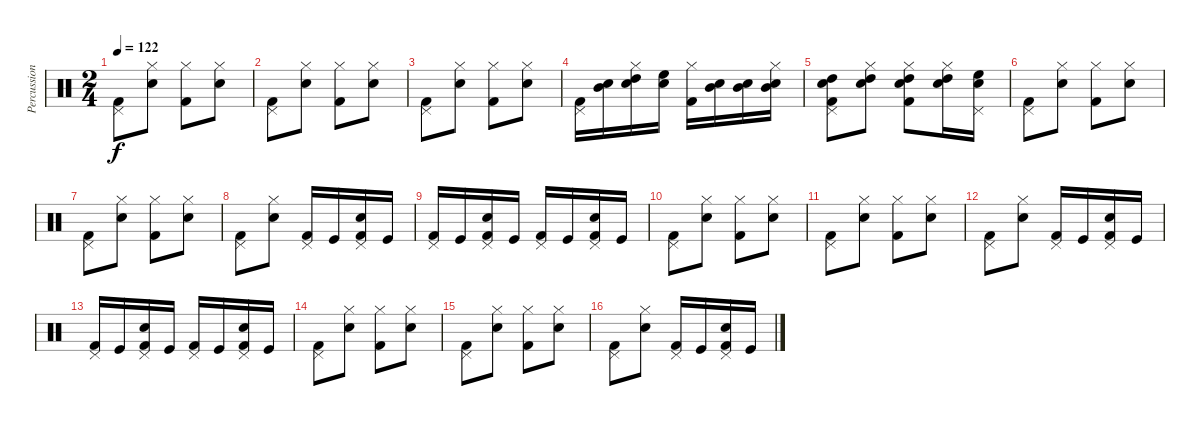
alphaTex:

\track ("Percussions" "Percussion") {instrument percussion}
\staff {score}
\articulation defaults
\ts (2 4)
\tempo 122
\clef neutral
\ks c
("Pedal Hi-Hat (hit)" "Kick (hit) 2").8{dy f} ("Hi-Hat (closed)" "Snare (hit) 2").8 ("Hi-Hat (closed)" "Kick (hit) 2").8 ("Hi-Hat (closed)" "Snare (hit) 2").8 |
("Pedal Hi-Hat (hit)" "Kick (hit) 2").8 ("Hi-Hat (closed)" "Snare (hit) 2").8 ("Hi-Hat (closed)" "Kick (hit) 2").8 ("Hi-Hat (closed)" "Snare (hit) 2").8 |
("Pedal Hi-Hat (hit)" "Kick (hit) 2").8 ("Hi-Hat (closed)" "Snare (hit) 2").8 ("Hi-Hat (closed)" "Kick (hit) 2").8 ("Hi-Hat (closed)" "Snare (hit) 2").8 |
("Pedal Hi-Hat (hit)" "Kick (hit) 2").16 ("Mid Tom (hit)" "Snare (hit) 2").16 ("Hi-Hat (closed)" "High Tom (hit)" "Snare (hit) 2").16 ("High Floor Tom (hit)" "Snare (hit) 2").16 ("Hi-Hat (closed)" "Kick (hit) 2").16 ("Mid Tom (hit)" "Snare (hit) 2").16 ("Mid Tom (hit)" "Snare (hit) 2").16 ("Hi-Hat (closed)" "Mid Tom (hit)" "Snare (hit) 2").16 |
("Pedal Hi-Hat (hit)" "High Tom (hit)" "Snare (hit) 2" "Kick (hit) 2").8 ("Hi-Hat (closed)" "High Tom (hit)" "Snare (hit) 2").8 ("Hi-Hat (closed)" "High Tom (hit)" "Snare (hit) 2" "Kick (hit) 2").8 ("Hi-Hat (closed)" "High Tom (hit)" "Snare (hit) 2").16 ("Pedal Hi-Hat (hit)" "High Floor Tom (hit)" "Snare (hit) 2").16 |
("Pedal Hi-Hat (hit)" "Kick (hit) 2").8 ("Hi-Hat (closed)" "Snare (hit) 2").8 ("Hi-Hat (closed)" "Kick (hit) 2").8 ("Hi-Hat (closed)" "Snare (hit) 2").8 |
("Pedal Hi-Hat (hit)" "Kick (hit) 2").8 ("Hi-Hat (closed)" "Snare (hit) 2").8 ("Hi-Hat (closed)" "Kick (hit) 2").8 ("Hi-Hat (closed)" "Snare (hit) 2").8 |
("Pedal Hi-Hat (hit)" "Kick (hit) 2").8 ("Hi-Hat (closed)" "Snare (hit) 2").8 ("Pedal Hi-Hat (hit)" "Kick (hit) 2").16 "Kick (hit)".16 ("Pedal Hi-Hat (hit)" "Snare (hit) 2" "Kick (hit) 2").16 "Kick (hit)".16 |
("Pedal Hi-Hat (hit)" "Kick (hit) 2").16 "Kick (hit)".16 ("Pedal Hi-Hat (hit)" "Snare (hit) 2" "Kick (hit) 2").16 "Kick (hit)".16 ("Pedal Hi-Hat (hit)" "Kick (hit) 2").16 "Kick (hit)".16 ("Pedal Hi-Hat (hit)" "Snare (hit) 2" "Kick (hit) 2").16 "Kick (hit)".16 |
("Pedal Hi-Hat (hit)" "Kick (hit) 2").8 ("Hi-Hat (closed)" "Snare (hit) 2").8 ("Hi-Hat (closed)" "Kick (hit) 2").8 ("Hi-Hat (closed)" "Snare (hit) 2").8 |
("Pedal Hi-Hat (hit)" "Kick (hit) 2").8 ("Hi-Hat (closed)" "Snare (hit) 2").8 ("Hi-Hat (closed)" "Kick (hit) 2").8 ("Hi-Hat (closed)" "Snare (hit) 2").8 |
("Pedal Hi-Hat (hit)" "Kick (hit) 2").8 ("Hi-Hat (closed)" "Snare (hit) 2").8 ("Pedal Hi-Hat (hit)" "Kick (hit) 2").16 "Kick (hit)".16 ("Pedal Hi-Hat (hit)" "Snare (hit) 2" "Kick (hit) 2").16 "Kick (hit)".16 |
("Pedal Hi-Hat (hit)" "Kick (hit) 2").16 "Kick (hit)".16 ("Pedal Hi-Hat (hit)" "Snare (hit) 2" "Kick (hit) 2").16 "Kick (hit)".16 ("Pedal Hi-Hat (hit)" "Kick (hit) 2").16 "Kick (hit)".16 ("Pedal Hi-Hat (hit)" "Snare (hit) 2" "Kick (hit) 2").16 "Kick (hit)".16 |
("Pedal Hi-Hat (hit)" "Kick (hit) 2").8 ("Hi-Hat (closed)" "Snare (hit) 2").8 ("Hi-Hat (closed)" "Kick (hit) 2").8 ("Hi-Hat (closed)" "Snare (hit) 2").8 |
("Pedal Hi-Hat (hit)" "Kick (hit) 2").8 ("Hi-Hat (closed)" "Snare (hit) 2").8 ("Hi-Hat (closed)" "Kick (hit) 2").8 ("Hi-Hat (closed)" "Snare (hit) 2").8 |
("Pedal Hi-Hat (hit)" "Kick (hit) 2").8 ("Hi-Hat (closed)" "Snare (hit) 2").8 ("Pedal Hi-Hat (hit)" "Kick (hit) 2").16 "Kick (hit)".16 ("Pedal Hi-Hat (hit)" "Snare (hit) 2" "Kick (hit) 2").16 "Kick (hit)".16
